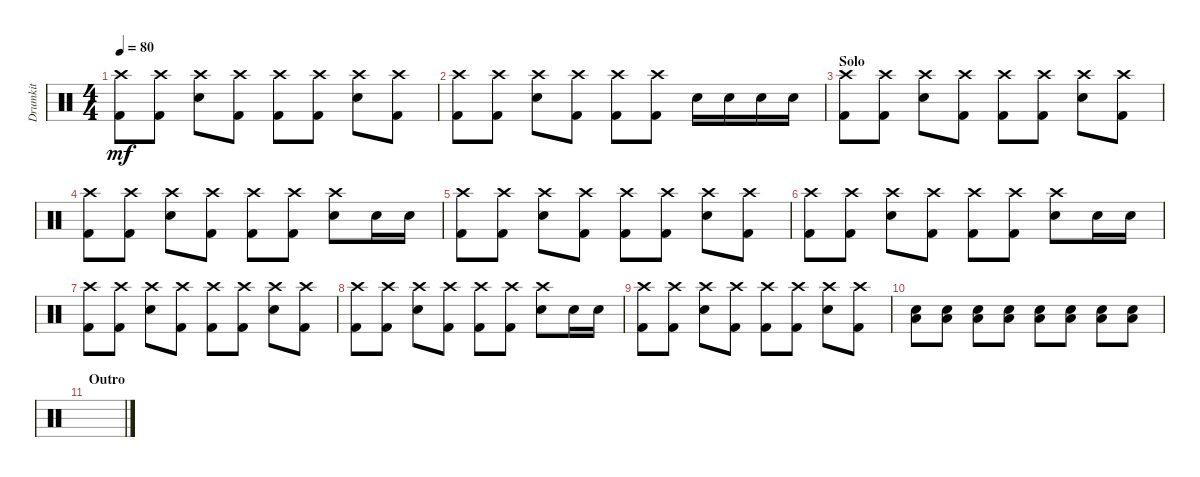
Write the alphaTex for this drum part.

\track ("Drumkit" "Drumkit") {instrument percussion}
\staff {score}
\articulation defaults
\ts (4 4)
\tempo 80
\clef neutral
\ks c
("Kick (hit) 2" "Crash high (hit)").8{dy mf} ("Kick (hit) 2" "Crash high (hit)").8 ("Snare (hit) 2" "Crash high (hit)").8 ("Kick (hit) 2" "Crash high (hit)").8 ("Kick (hit) 2" "Crash high (hit)").8 ("Kick (hit) 2" "Crash high (hit)").8 ("Snare (hit) 2" "Crash high (hit)").8 ("Kick (hit) 2" "Crash high (hit)").8 |
("Kick (hit) 2" "Crash high (hit)").8 ("Kick (hit) 2" "Crash high (hit)").8 ("Snare (hit) 2" "Crash high (hit)").8 ("Kick (hit) 2" "Crash high (hit)").8 ("Kick (hit) 2" "Crash high (hit)").8 ("Kick (hit) 2" "Crash high (hit)").8 "Snare (hit) 2".16 "Snare (hit) 2".16 "Snare (hit) 2".16 "Snare (hit) 2".16 |
\section ("" "Solo")
("Kick (hit) 2" "Crash high (hit)").8 ("Kick (hit) 2" "Crash high (hit)").8 ("Snare (hit) 2" "Crash high (hit)").8 ("Kick (hit) 2" "Crash high (hit)").8 ("Kick (hit) 2" "Crash high (hit)").8 ("Kick (hit) 2" "Crash high (hit)").8 ("Snare (hit) 2" "Crash high (hit)").8 ("Kick (hit) 2" "Crash high (hit)").8 |
("Kick (hit) 2" "Crash high (hit)").8 ("Kick (hit) 2" "Crash high (hit)").8 ("Snare (hit) 2" "Crash high (hit)").8 ("Kick (hit) 2" "Crash high (hit)").8 ("Kick (hit) 2" "Crash high (hit)").8 ("Kick (hit) 2" "Crash high (hit)").8 ("Snare (hit) 2" "Crash high (hit)").8 "Snare (hit) 2".16 "Snare (hit) 2".16 |
("Kick (hit) 2" "Crash high (hit)").8 ("Kick (hit) 2" "Crash high (hit)").8 ("Snare (hit) 2" "Crash high (hit)").8 ("Kick (hit) 2" "Crash high (hit)").8 ("Kick (hit) 2" "Crash high (hit)").8 ("Kick (hit) 2" "Crash high (hit)").8 ("Snare (hit) 2" "Crash high (hit)").8 ("Kick (hit) 2" "Crash high (hit)").8 |
("Kick (hit) 2" "Crash high (hit)").8 ("Kick (hit) 2" "Crash high (hit)").8 ("Snare (hit) 2" "Crash high (hit)").8 ("Kick (hit) 2" "Crash high (hit)").8 ("Kick (hit) 2" "Crash high (hit)").8 ("Kick (hit) 2" "Crash high (hit)").8 ("Snare (hit) 2" "Crash high (hit)").8 "Snare (hit) 2".16 "Snare (hit) 2".16 |
("Kick (hit) 2" "Crash high (hit)").8 ("Kick (hit) 2" "Crash high (hit)").8 ("Snare (hit) 2" "Crash high (hit)").8 ("Kick (hit) 2" "Crash high (hit)").8 ("Kick (hit) 2" "Crash high (hit)").8 ("Kick (hit) 2" "Crash high (hit)").8 ("Snare (hit) 2" "Crash high (hit)").8 ("Kick (hit) 2" "Crash high (hit)").8 |
("Kick (hit) 2" "Crash high (hit)").8 ("Kick (hit) 2" "Crash high (hit)").8 ("Snare (hit) 2" "Crash high (hit)").8 ("Kick (hit) 2" "Crash high (hit)").8 ("Kick (hit) 2" "Crash high (hit)").8 ("Kick (hit) 2" "Crash high (hit)").8 ("Snare (hit) 2" "Crash high (hit)").8 "Snare (hit) 2".16 "Snare (hit) 2".16 |
("Kick (hit) 2" "Crash high (hit)").8 ("Kick (hit) 2" "Crash high (hit)").8 ("Snare (hit) 2" "Crash high (hit)").8 ("Kick (hit) 2" "Crash high (hit)").8 ("Kick (hit) 2" "Crash high (hit)").8 ("Kick (hit) 2" "Crash high (hit)").8 ("Snare (hit) 2" "Crash high (hit)").8 ("Kick (hit) 2" "Crash high (hit)").8 |
("Snare (hit) 2" "Low Tom (hit)").8 ("Snare (hit) 2" "Low Tom (hit)").8 ("Snare (hit) 2" "Low Tom (hit)").8 ("Snare (hit) 2" "Low Tom (hit)").8 ("Snare (hit) 2" "Low Tom (hit)").8 ("Snare (hit) 2" "Low Tom (hit)").8 ("Snare (hit) 2" "Low Tom (hit)").8 ("Snare (hit) 2" "Low Tom (hit)").8 |
\section ("" "Outro")
